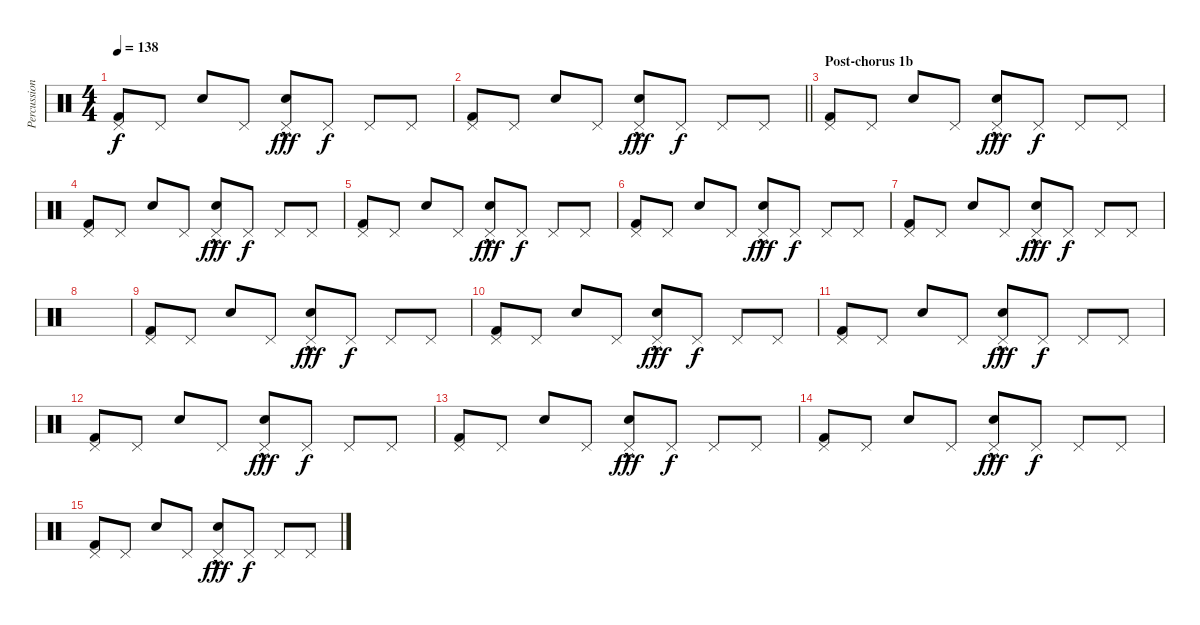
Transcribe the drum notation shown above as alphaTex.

\track ("Percussion" "Percussion") {instrument percussion}
\staff {score}
\articulation defaults
\ts (4 4)
\tempo 138
\clef neutral
\ks c
("Kick (hit) 2" "Pedal Hi-Hat (hit)").8{dy f} "Pedal Hi-Hat (hit)".8 "Snare (hit)".8 "Pedal Hi-Hat (hit)".8 ("Snare (hit) 2"{hac} "Pedal Hi-Hat (hit)").8{dy fff} "Pedal Hi-Hat (hit)".8{dy f} "Pedal Hi-Hat (hit)".8 "Pedal Hi-Hat (hit)".8 |
\barLineRight lightlight
("Kick (hit) 2" "Pedal Hi-Hat (hit)").8 "Pedal Hi-Hat (hit)".8 "Snare (hit)".8 "Pedal Hi-Hat (hit)".8 ("Snare (hit) 2"{hac} "Pedal Hi-Hat (hit)").8{dy fff} "Pedal Hi-Hat (hit)".8{dy f} "Pedal Hi-Hat (hit)".8 "Pedal Hi-Hat (hit)".8 |
\section ("" "Post-chorus 1b")
("Kick (hit) 2" "Pedal Hi-Hat (hit)").8 "Pedal Hi-Hat (hit)".8 "Snare (hit)".8 "Pedal Hi-Hat (hit)".8 ("Snare (hit) 2"{hac} "Pedal Hi-Hat (hit)").8{dy fff} "Pedal Hi-Hat (hit)".8{dy f} "Pedal Hi-Hat (hit)".8 "Pedal Hi-Hat (hit)".8 |
("Kick (hit) 2" "Pedal Hi-Hat (hit)").8 "Pedal Hi-Hat (hit)".8 "Snare (hit)".8 "Pedal Hi-Hat (hit)".8 ("Snare (hit) 2"{hac} "Pedal Hi-Hat (hit)").8{dy fff} "Pedal Hi-Hat (hit)".8{dy f} "Pedal Hi-Hat (hit)".8 "Pedal Hi-Hat (hit)".8 |
("Kick (hit) 2" "Pedal Hi-Hat (hit)").8 "Pedal Hi-Hat (hit)".8 "Snare (hit)".8 "Pedal Hi-Hat (hit)".8 ("Snare (hit) 2"{hac} "Pedal Hi-Hat (hit)").8{dy fff} "Pedal Hi-Hat (hit)".8{dy f} "Pedal Hi-Hat (hit)".8 "Pedal Hi-Hat (hit)".8 |
("Kick (hit) 2" "Pedal Hi-Hat (hit)").8 "Pedal Hi-Hat (hit)".8 "Snare (hit)".8 "Pedal Hi-Hat (hit)".8 ("Snare (hit) 2"{hac} "Pedal Hi-Hat (hit)").8{dy fff} "Pedal Hi-Hat (hit)".8{dy f} "Pedal Hi-Hat (hit)".8 "Pedal Hi-Hat (hit)".8 |
("Kick (hit) 2" "Pedal Hi-Hat (hit)").8 "Pedal Hi-Hat (hit)".8 "Snare (hit)".8 "Pedal Hi-Hat (hit)".8 ("Snare (hit) 2"{hac} "Pedal Hi-Hat (hit)").8{dy fff} "Pedal Hi-Hat (hit)".8{dy f} "Pedal Hi-Hat (hit)".8 "Pedal Hi-Hat (hit)".8 |
|
("Kick (hit) 2" "Pedal Hi-Hat (hit)").8 "Pedal Hi-Hat (hit)".8 "Snare (hit)".8 "Pedal Hi-Hat (hit)".8 ("Snare (hit) 2"{hac} "Pedal Hi-Hat (hit)").8{dy fff} "Pedal Hi-Hat (hit)".8{dy f} "Pedal Hi-Hat (hit)".8 "Pedal Hi-Hat (hit)".8 |
("Kick (hit) 2" "Pedal Hi-Hat (hit)").8 "Pedal Hi-Hat (hit)".8 "Snare (hit)".8 "Pedal Hi-Hat (hit)".8 ("Snare (hit) 2"{hac} "Pedal Hi-Hat (hit)").8{dy fff} "Pedal Hi-Hat (hit)".8{dy f} "Pedal Hi-Hat (hit)".8 "Pedal Hi-Hat (hit)".8 |
("Kick (hit) 2" "Pedal Hi-Hat (hit)").8 "Pedal Hi-Hat (hit)".8 "Snare (hit)".8 "Pedal Hi-Hat (hit)".8 ("Snare (hit) 2"{hac} "Pedal Hi-Hat (hit)").8{dy fff} "Pedal Hi-Hat (hit)".8{dy f} "Pedal Hi-Hat (hit)".8 "Pedal Hi-Hat (hit)".8 |
("Kick (hit) 2" "Pedal Hi-Hat (hit)").8 "Pedal Hi-Hat (hit)".8 "Snare (hit)".8 "Pedal Hi-Hat (hit)".8 ("Snare (hit) 2"{hac} "Pedal Hi-Hat (hit)").8{dy fff} "Pedal Hi-Hat (hit)".8{dy f} "Pedal Hi-Hat (hit)".8 "Pedal Hi-Hat (hit)".8 |
("Kick (hit) 2" "Pedal Hi-Hat (hit)").8 "Pedal Hi-Hat (hit)".8 "Snare (hit)".8 "Pedal Hi-Hat (hit)".8 ("Snare (hit) 2"{hac} "Pedal Hi-Hat (hit)").8{dy fff} "Pedal Hi-Hat (hit)".8{dy f} "Pedal Hi-Hat (hit)".8 "Pedal Hi-Hat (hit)".8 |
("Kick (hit) 2" "Pedal Hi-Hat (hit)").8 "Pedal Hi-Hat (hit)".8 "Snare (hit)".8 "Pedal Hi-Hat (hit)".8 ("Snare (hit) 2"{hac} "Pedal Hi-Hat (hit)").8{dy fff} "Pedal Hi-Hat (hit)".8{dy f} "Pedal Hi-Hat (hit)".8 "Pedal Hi-Hat (hit)".8 |
("Kick (hit) 2" "Pedal Hi-Hat (hit)").8 "Pedal Hi-Hat (hit)".8 "Snare (hit)".8 "Pedal Hi-Hat (hit)".8 ("Snare (hit) 2"{hac} "Pedal Hi-Hat (hit)").8{dy fff} "Pedal Hi-Hat (hit)".8{dy f} "Pedal Hi-Hat (hit)".8 "Pedal Hi-Hat (hit)".8
